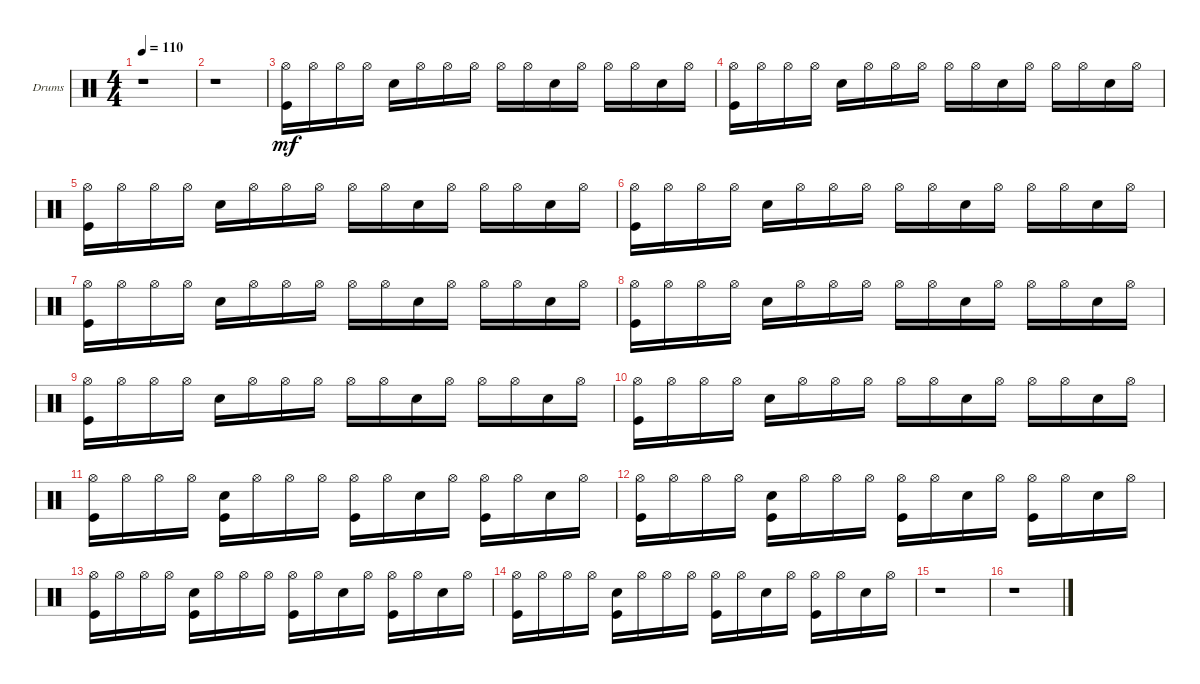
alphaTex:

\defaultSystemsLayout 4
\bracketExtendMode groupsimilarinstruments
\firstSystemTrackNameOrientation horizontal
\otherSystemsTrackNameOrientation horizontal
\track ("Fabrizio" "Drums") {instrument percussion}
\staff {score}
\articulation defaults
\ts (4 4)
\tempo 110
\clef neutral
\ks c
r.1{dy mf} |
r.1 |
("Hi-Hat (open)" "Kick (hit)").16 "Hi-Hat (open)".16 "Hi-Hat (open)".16 "Hi-Hat (open)".16 "Snare (hit) 2".16 "Hi-Hat (open)".16 "Hi-Hat (open)".16 "Hi-Hat (open)".16 "Hi-Hat (open)".16 "Hi-Hat (open)".16 "Snare (hit) 2".16 "Hi-Hat (open)".16 "Hi-Hat (open)".16 "Hi-Hat (open)".16 "Snare (hit) 2".16 "Hi-Hat (open)".16 |
("Hi-Hat (open)" "Kick (hit)").16 "Hi-Hat (open)".16 "Hi-Hat (open)".16 "Hi-Hat (open)".16 "Snare (hit) 2".16 "Hi-Hat (open)".16 "Hi-Hat (open)".16 "Hi-Hat (open)".16 "Hi-Hat (open)".16 "Hi-Hat (open)".16 "Snare (hit) 2".16 "Hi-Hat (open)".16 "Hi-Hat (open)".16 "Hi-Hat (open)".16 "Snare (hit) 2".16 "Hi-Hat (open)".16 |
("Hi-Hat (open)" "Kick (hit)").16 "Hi-Hat (open)".16 "Hi-Hat (open)".16 "Hi-Hat (open)".16 "Snare (hit) 2".16 "Hi-Hat (open)".16 "Hi-Hat (open)".16 "Hi-Hat (open)".16 "Hi-Hat (open)".16 "Hi-Hat (open)".16 "Snare (hit) 2".16 "Hi-Hat (open)".16 "Hi-Hat (open)".16 "Hi-Hat (open)".16 "Snare (hit) 2".16 "Hi-Hat (open)".16 |
("Hi-Hat (open)" "Kick (hit)").16 "Hi-Hat (open)".16 "Hi-Hat (open)".16 "Hi-Hat (open)".16 "Snare (hit) 2".16 "Hi-Hat (open)".16 "Hi-Hat (open)".16 "Hi-Hat (open)".16 "Hi-Hat (open)".16 "Hi-Hat (open)".16 "Snare (hit) 2".16 "Hi-Hat (open)".16 "Hi-Hat (open)".16 "Hi-Hat (open)".16 "Snare (hit) 2".16 "Hi-Hat (open)".16 |
("Hi-Hat (open)" "Kick (hit)").16 "Hi-Hat (open)".16 "Hi-Hat (open)".16 "Hi-Hat (open)".16 "Snare (hit) 2".16 "Hi-Hat (open)".16 "Hi-Hat (open)".16 "Hi-Hat (open)".16 "Hi-Hat (open)".16 "Hi-Hat (open)".16 "Snare (hit) 2".16 "Hi-Hat (open)".16 "Hi-Hat (open)".16 "Hi-Hat (open)".16 "Snare (hit) 2".16 "Hi-Hat (open)".16 |
("Hi-Hat (open)" "Kick (hit)").16 "Hi-Hat (open)".16 "Hi-Hat (open)".16 "Hi-Hat (open)".16 "Snare (hit) 2".16 "Hi-Hat (open)".16 "Hi-Hat (open)".16 "Hi-Hat (open)".16 "Hi-Hat (open)".16 "Hi-Hat (open)".16 "Snare (hit) 2".16 "Hi-Hat (open)".16 "Hi-Hat (open)".16 "Hi-Hat (open)".16 "Snare (hit) 2".16 "Hi-Hat (open)".16 |
("Hi-Hat (open)" "Kick (hit)").16 "Hi-Hat (open)".16 "Hi-Hat (open)".16 "Hi-Hat (open)".16 "Snare (hit) 2".16 "Hi-Hat (open)".16 "Hi-Hat (open)".16 "Hi-Hat (open)".16 "Hi-Hat (open)".16 "Hi-Hat (open)".16 "Snare (hit) 2".16 "Hi-Hat (open)".16 "Hi-Hat (open)".16 "Hi-Hat (open)".16 "Snare (hit) 2".16 "Hi-Hat (open)".16 |
("Hi-Hat (open)" "Kick (hit)").16 "Hi-Hat (open)".16 "Hi-Hat (open)".16 "Hi-Hat (open)".16 "Snare (hit) 2".16 "Hi-Hat (open)".16 "Hi-Hat (open)".16 "Hi-Hat (open)".16 "Hi-Hat (open)".16 "Hi-Hat (open)".16 "Snare (hit) 2".16 "Hi-Hat (open)".16 "Hi-Hat (open)".16 "Hi-Hat (open)".16 "Snare (hit) 2".16 "Hi-Hat (open)".16 |
("Hi-Hat (open)" "Kick (hit)").16 "Hi-Hat (open)".16 "Hi-Hat (open)".16 "Hi-Hat (open)".16 ("Snare (hit) 2" "Kick (hit)").16 "Hi-Hat (open)".16 "Hi-Hat (open)".16 "Hi-Hat (open)".16 ("Hi-Hat (open)" "Kick (hit)").16 "Hi-Hat (open)".16 "Snare (hit) 2".16 "Hi-Hat (open)".16 ("Hi-Hat (open)" "Kick (hit)").16 "Hi-Hat (open)".16 "Snare (hit) 2".16 "Hi-Hat (open)".16 |
("Hi-Hat (open)" "Kick (hit)").16 "Hi-Hat (open)".16 "Hi-Hat (open)".16 "Hi-Hat (open)".16 ("Snare (hit) 2" "Kick (hit)").16 "Hi-Hat (open)".16 "Hi-Hat (open)".16 "Hi-Hat (open)".16 ("Hi-Hat (open)" "Kick (hit)").16 "Hi-Hat (open)".16 "Snare (hit) 2".16 "Hi-Hat (open)".16 ("Hi-Hat (open)" "Kick (hit)").16 "Hi-Hat (open)".16 "Snare (hit) 2".16 "Hi-Hat (open)".16 |
("Hi-Hat (open)" "Kick (hit)").16 "Hi-Hat (open)".16 "Hi-Hat (open)".16 "Hi-Hat (open)".16 ("Snare (hit) 2" "Kick (hit)").16 "Hi-Hat (open)".16 "Hi-Hat (open)".16 "Hi-Hat (open)".16 ("Hi-Hat (open)" "Kick (hit)").16 "Hi-Hat (open)".16 "Snare (hit) 2".16 "Hi-Hat (open)".16 ("Hi-Hat (open)" "Kick (hit)").16 "Hi-Hat (open)".16 "Snare (hit) 2".16 "Hi-Hat (open)".16 |
("Hi-Hat (open)" "Kick (hit)").16 "Hi-Hat (open)".16 "Hi-Hat (open)".16 "Hi-Hat (open)".16 ("Snare (hit) 2" "Kick (hit)").16 "Hi-Hat (open)".16 "Hi-Hat (open)".16 "Hi-Hat (open)".16 ("Hi-Hat (open)" "Kick (hit)").16 "Hi-Hat (open)".16 "Snare (hit) 2".16 "Hi-Hat (open)".16 ("Hi-Hat (open)" "Kick (hit)").16 "Hi-Hat (open)".16 "Snare (hit) 2".16 "Hi-Hat (open)".16 |
r.1 |
r.1
